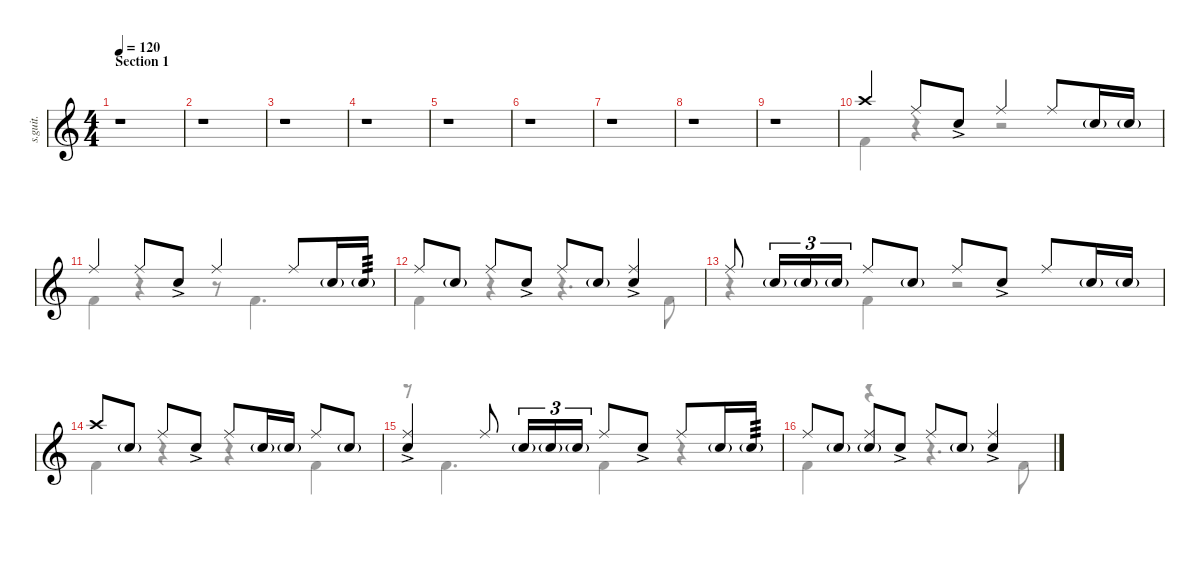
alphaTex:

\defaultSystemsLayout 4
\hideDynamics
\bracketExtendMode nobrackets
\track ("Matt Halpern" "s.guit.") {instrument percussion}
\staff {score}
\articulation defaults
\voice
\ts (4 4)
\beaming (8 2 2 2 2)
\section ("" "Section 1")
\tempo 120
\clef g2
\ks c
r.1{dy mf} |
r.1 |
r.1 |
r.1 |
r.1 |
r.1 |
r.1 |
r.1 |
r.1 |
"Crash high (hit)".4{lyrics (0 "") lyrics (1 "") lyrics (2 "") lyrics (3 "") lyrics (4 "")} "Ride (middle)".8{lyrics (0 "") lyrics (1 "") lyrics (2 "") lyrics (3 "") lyrics (4 "")} "Snare (hit) 2"{ac}.8{lyrics (0 "") lyrics (1 "") lyrics (2 "") lyrics (3 "") lyrics (4 "")} "Ride (middle)".4{lyrics (0 "") lyrics (1 "") lyrics (2 "") lyrics (3 "") lyrics (4 "")} "Ride (middle)".8{lyrics (0 "") lyrics (1 "") lyrics (2 "") lyrics (3 "") lyrics (4 "")} "Snare (hit) 2"{g}.16{lyrics (0 "") lyrics (1 "") lyrics (2 "") lyrics (3 "") lyrics (4 "")} "Snare (hit) 2"{g}.16{lyrics (0 "") lyrics (1 "") lyrics (2 "") lyrics (3 "") lyrics (4 "")} |
"Ride (middle)".4{lyrics (0 "") lyrics (1 "") lyrics (2 "") lyrics (3 "") lyrics (4 "")} "Ride (middle)".8{lyrics (0 "") lyrics (1 "") lyrics (2 "") lyrics (3 "") lyrics (4 "")} "Snare (hit) 2"{ac}.8{lyrics (0 "") lyrics (1 "") lyrics (2 "") lyrics (3 "") lyrics (4 "")} "Ride (middle)".4{lyrics (0 "") lyrics (1 "") lyrics (2 "") lyrics (3 "") lyrics (4 "")} "Ride (middle)".8{lyrics (0 "") lyrics (1 "") lyrics (2 "") lyrics (3 "") lyrics (4 "")} "Snare (hit) 2"{g}.16{lyrics (0 "") lyrics (1 "") lyrics (2 "") lyrics (3 "") lyrics (4 "")} "Snare (hit) 2"{g}.16{lyrics (0 "") lyrics (1 "") lyrics (2 "") lyrics (3 "") lyrics (4 "") tp 3} |
"Ride (middle)".8{lyrics (0 "") lyrics (1 "") lyrics (2 "") lyrics (3 "") lyrics (4 "")} "Snare (hit) 2"{g}.8{lyrics (0 "") lyrics (1 "") lyrics (2 "") lyrics (3 "") lyrics (4 "")} "Ride (middle)".8{lyrics (0 "") lyrics (1 "") lyrics (2 "") lyrics (3 "") lyrics (4 "")} "Snare (hit) 2"{ac}.8{lyrics (0 "") lyrics (1 "") lyrics (2 "") lyrics (3 "") lyrics (4 "")} "Ride (middle)".8{lyrics (0 "") lyrics (1 "") lyrics (2 "") lyrics (3 "") lyrics (4 "")} "Snare (hit) 2"{g}.8{lyrics (0 "") lyrics (1 "") lyrics (2 "") lyrics (3 "") lyrics (4 "")} ("Ride (middle)" "Snare (hit) 2"{ac}).4{lyrics (0 "") lyrics (1 "") lyrics (2 "") lyrics (3 "") lyrics (4 "")} |
"Ride (middle)".8{lyrics (0 "") lyrics (1 "") lyrics (2 "") lyrics (3 "") lyrics (4 "")} "Snare (hit) 2"{g}.16{tu (3 2) lyrics (0 "") lyrics (1 "") lyrics (2 "") lyrics (3 "") lyrics (4 "")} "Snare (hit) 2"{g}.16{tu (3 2) lyrics (0 "") lyrics (1 "") lyrics (2 "") lyrics (3 "") lyrics (4 "")} "Snare (hit) 2"{g}.16{tu (3 2) lyrics (0 "") lyrics (1 "") lyrics (2 "") lyrics (3 "") lyrics (4 "")} "Ride (middle)".8{lyrics (0 "") lyrics (1 "") lyrics (2 "") lyrics (3 "") lyrics (4 "")} "Snare (hit) 2"{g}.8{lyrics (0 "") lyrics (1 "") lyrics (2 "") lyrics (3 "") lyrics (4 "")} "Ride (middle)".8{lyrics (0 "") lyrics (1 "") lyrics (2 "") lyrics (3 "") lyrics (4 "")} "Snare (hit) 2"{ac}.8{lyrics (0 "") lyrics (1 "") lyrics (2 "") lyrics (3 "") lyrics (4 "")} "Ride (middle)".8{lyrics (0 "") lyrics (1 "") lyrics (2 "") lyrics (3 "") lyrics (4 "")} "Snare (hit) 2"{g}.16{lyrics (0 "") lyrics (1 "") lyrics (2 "") lyrics (3 "") lyrics (4 "")} "Snare (hit) 2"{g}.16{lyrics (0 "") lyrics (1 "") lyrics (2 "") lyrics (3 "") lyrics (4 "")} |
"Crash high (hit)".8{lyrics (0 "") lyrics (1 "") lyrics (2 "") lyrics (3 "") lyrics (4 "")} "Snare (hit) 2"{g}.8{lyrics (0 "") lyrics (1 "") lyrics (2 "") lyrics (3 "") lyrics (4 "")} "Ride (middle)".8{lyrics (0 "") lyrics (1 "") lyrics (2 "") lyrics (3 "") lyrics (4 "")} "Snare (hit) 2"{ac}.8{lyrics (0 "") lyrics (1 "") lyrics (2 "") lyrics (3 "") lyrics (4 "")} "Ride (middle)".8{lyrics (0 "") lyrics (1 "") lyrics (2 "") lyrics (3 "") lyrics (4 "")} "Snare (hit) 2"{g}.16{lyrics (0 "") lyrics (1 "") lyrics (2 "") lyrics (3 "") lyrics (4 "")} "Snare (hit) 2"{g}.16{lyrics (0 "") lyrics (1 "") lyrics (2 "") lyrics (3 "") lyrics (4 "")} "Ride (middle)".8{lyrics (0 "") lyrics (1 "") lyrics (2 "") lyrics (3 "") lyrics (4 "")} "Snare (hit) 2"{g}.8{lyrics (0 "") lyrics (1 "") lyrics (2 "") lyrics (3 "") lyrics (4 "")} |
("Snare (hit) 2"{ac} "Ride (middle)").4{lyrics (0 "") lyrics (1 "") lyrics (2 "") lyrics (3 "") lyrics (4 "")} "Ride (middle)".8{lyrics (0 "") lyrics (1 "") lyrics (2 "") lyrics (3 "") lyrics (4 "")} "Snare (hit) 2"{g}.16{tu (3 2) lyrics (0 "") lyrics (1 "") lyrics (2 "") lyrics (3 "") lyrics (4 "")} "Snare (hit) 2"{g}.16{tu (3 2) lyrics (0 "") lyrics (1 "") lyrics (2 "") lyrics (3 "") lyrics (4 "")} "Snare (hit) 2"{g}.16{tu (3 2) lyrics (0 "") lyrics (1 "") lyrics (2 "") lyrics (3 "") lyrics (4 "")} "Ride (middle)".8{lyrics (0 "") lyrics (1 "") lyrics (2 "") lyrics (3 "") lyrics (4 "")} "Snare (hit) 2"{ac}.8{lyrics (0 "") lyrics (1 "") lyrics (2 "") lyrics (3 "") lyrics (4 "")} "Ride (middle)".8{lyrics (0 "") lyrics (1 "") lyrics (2 "") lyrics (3 "") lyrics (4 "")} "Snare (hit) 2"{g}.16{lyrics (0 "") lyrics (1 "") lyrics (2 "") lyrics (3 "") lyrics (4 "")} "Snare (hit) 2"{g}.16{lyrics (0 "") lyrics (1 "") lyrics (2 "") lyrics (3 "") lyrics (4 "") tp 3} |
"Ride (middle)".8{lyrics (0 "") lyrics (1 "") lyrics (2 "") lyrics (3 "") lyrics (4 "")} "Snare (hit) 2"{g}.8{lyrics (0 "") lyrics (1 "") lyrics (2 "") lyrics (3 "") lyrics (4 "")} ("Snare (hit) 2"{g} "Ride (middle)").8{lyrics (0 "") lyrics (1 "") lyrics (2 "") lyrics (3 "") lyrics (4 "")} "Snare (hit) 2"{ac}.8{lyrics (0 "") lyrics (1 "") lyrics (2 "") lyrics (3 "") lyrics (4 "")} "Ride (middle)".8{lyrics (0 "") lyrics (1 "") lyrics (2 "") lyrics (3 "") lyrics (4 "")} "Snare (hit) 2"{g}.8{lyrics (0 "") lyrics (1 "") lyrics (2 "") lyrics (3 "") lyrics (4 "")} ("Snare (hit) 2"{ac} "Ride (middle)").4{lyrics (0 "") lyrics (1 "") lyrics (2 "") lyrics (3 "") lyrics (4 "")}
\voice
\clef g2
\ottava regular
\simile none
\ks c
r.1{dy mf} |
r.1 |
r.1 |
r.1 |
r.1 |
r.1 |
r.1 |
r.1 |
r.1 |
"Kick (hit) 2".4{lyrics (0 "") lyrics (1 "") lyrics (2 "") lyrics (3 "") lyrics (4 "")} r.4 r.2 |
"Kick (hit) 2".4{lyrics (0 "") lyrics (1 "") lyrics (2 "") lyrics (3 "") lyrics (4 "")} r.4 r.8 "Kick (hit) 2".4{d lyrics (0 "") lyrics (1 "") lyrics (2 "") lyrics (3 "") lyrics (4 "")} |
"Kick (hit) 2".4{lyrics (0 "") lyrics (1 "") lyrics (2 "") lyrics (3 "") lyrics (4 "")} r.4 r.4{d} "Kick (hit) 2".8{lyrics (0 "") lyrics (1 "") lyrics (2 "") lyrics (3 "") lyrics (4 "")} |
r.4 "Kick (hit) 2".4{lyrics (0 "") lyrics (1 "") lyrics (2 "") lyrics (3 "") lyrics (4 "")} r.2 |
"Kick (hit) 2".4{lyrics (0 "") lyrics (1 "") lyrics (2 "") lyrics (3 "") lyrics (4 "")} r.4 r.4 "Kick (hit) 2".4{lyrics (0 "") lyrics (1 "") lyrics (2 "") lyrics (3 "") lyrics (4 "")} |
r.8 "Kick (hit) 2".4{d lyrics (0 "") lyrics (1 "") lyrics (2 "") lyrics (3 "") lyrics (4 "")} "Kick (hit) 2".4{lyrics (0 "") lyrics (1 "") lyrics (2 "") lyrics (3 "") lyrics (4 "")} r.4 |
"Kick (hit) 2".4{lyrics (0 "") lyrics (1 "") lyrics (2 "") lyrics (3 "") lyrics (4 "")} r.4 r.4{d} "Kick (hit) 2".8{lyrics (0 "") lyrics (1 "") lyrics (2 "") lyrics (3 "") lyrics (4 "")}
